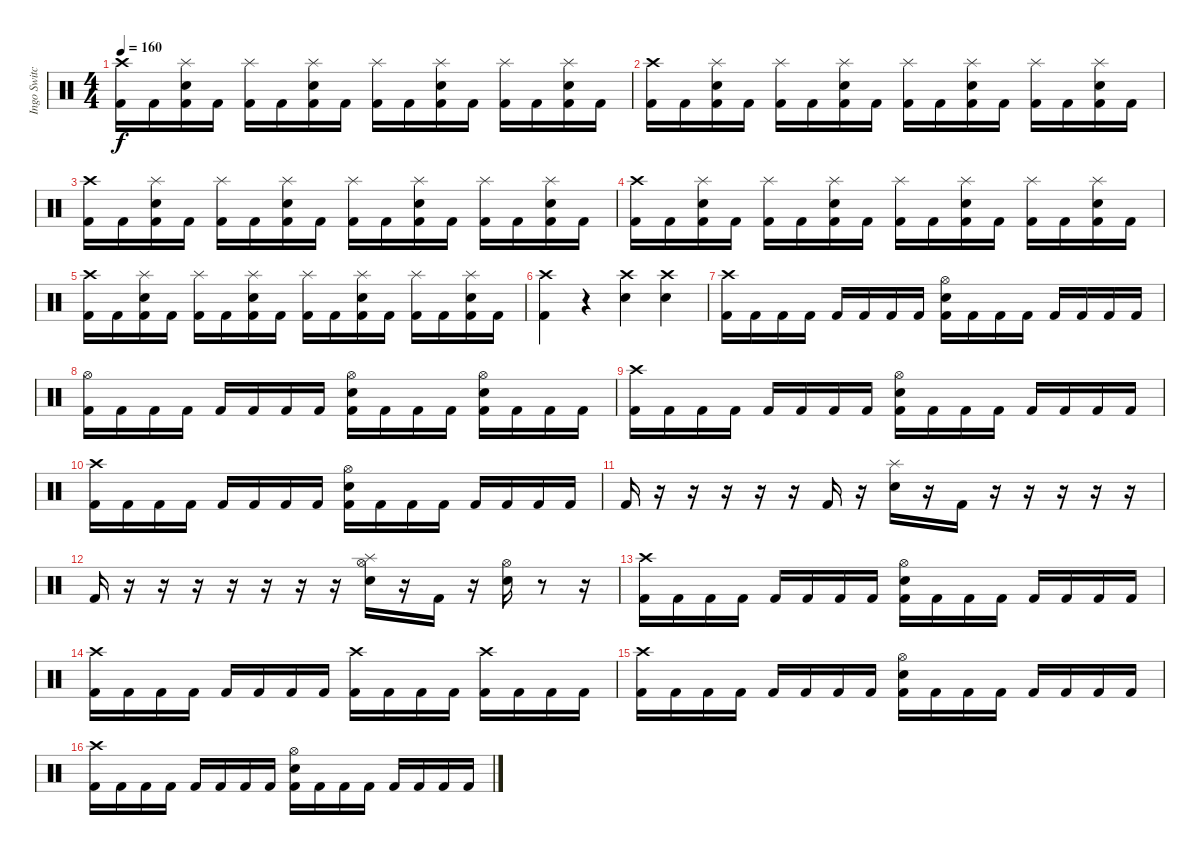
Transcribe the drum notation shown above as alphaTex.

\track ("Ingo Switchenberg" "Ingo Switc") {instrument percussion}
\staff {score}
\articulation defaults
\ts (4 4)
\tempo 160
\clef neutral
\ks c
("Crash high (hit)" "Kick (hit) 2").16{dy f} "Kick (hit) 2".16 ("Snare (hit) 2" "Kick (hit) 2" "Splash (hit)").16 "Kick (hit) 2".16 ("Kick (hit) 2" "Splash (hit)").16 "Kick (hit) 2".16 ("Snare (hit) 2" "Kick (hit) 2" "Splash (hit)").16 "Kick (hit) 2".16 ("Kick (hit) 2" "Splash (hit)").16 "Kick (hit) 2".16 ("Snare (hit) 2" "Kick (hit) 2" "Splash (hit)").16 "Kick (hit) 2".16 ("Kick (hit) 2" "Splash (hit)").16 "Kick (hit) 2".16 ("Snare (hit) 2" "Kick (hit) 2" "Splash (hit)").16 "Kick (hit) 2".16 |
("Crash high (hit)" "Kick (hit) 2").16 "Kick (hit) 2".16 ("Snare (hit) 2" "Kick (hit) 2" "Splash (hit)").16 "Kick (hit) 2".16 ("Kick (hit) 2" "Splash (hit)").16 "Kick (hit) 2".16 ("Snare (hit) 2" "Kick (hit) 2" "Splash (hit)").16 "Kick (hit) 2".16 ("Kick (hit) 2" "Splash (hit)").16 "Kick (hit) 2".16 ("Snare (hit) 2" "Kick (hit) 2" "Splash (hit)").16 "Kick (hit) 2".16 ("Kick (hit) 2" "Splash (hit)").16 "Kick (hit) 2".16 ("Snare (hit) 2" "Kick (hit) 2" "Splash (hit)").16 "Kick (hit) 2".16 |
("Crash high (hit)" "Kick (hit) 2").16 "Kick (hit) 2".16 ("Snare (hit) 2" "Kick (hit) 2" "Splash (hit)").16 "Kick (hit) 2".16 ("Kick (hit) 2" "Splash (hit)").16 "Kick (hit) 2".16 ("Snare (hit) 2" "Kick (hit) 2" "Splash (hit)").16 "Kick (hit) 2".16 ("Kick (hit) 2" "Splash (hit)").16 "Kick (hit) 2".16 ("Snare (hit) 2" "Kick (hit) 2" "Splash (hit)").16 "Kick (hit) 2".16 ("Kick (hit) 2" "Splash (hit)").16 "Kick (hit) 2".16 ("Snare (hit) 2" "Kick (hit) 2" "Splash (hit)").16 "Kick (hit) 2".16 |
("Crash high (hit)" "Kick (hit) 2").16 "Kick (hit) 2".16 ("Snare (hit) 2" "Kick (hit) 2" "Splash (hit)").16 "Kick (hit) 2".16 ("Kick (hit) 2" "Splash (hit)").16 "Kick (hit) 2".16 ("Snare (hit) 2" "Kick (hit) 2" "Splash (hit)").16 "Kick (hit) 2".16 ("Kick (hit) 2" "Splash (hit)").16 "Kick (hit) 2".16 ("Snare (hit) 2" "Kick (hit) 2" "Splash (hit)").16 "Kick (hit) 2".16 ("Kick (hit) 2" "Splash (hit)").16 "Kick (hit) 2".16 ("Snare (hit) 2" "Kick (hit) 2" "Splash (hit)").16 "Kick (hit) 2".16 |
("Crash high (hit)" "Kick (hit) 2").16 "Kick (hit) 2".16 ("Snare (hit) 2" "Kick (hit) 2" "Splash (hit)").16 "Kick (hit) 2".16 ("Kick (hit) 2" "Splash (hit)").16 "Kick (hit) 2".16 ("Snare (hit) 2" "Kick (hit) 2" "Splash (hit)").16 "Kick (hit) 2".16 ("Kick (hit) 2" "Splash (hit)").16 "Kick (hit) 2".16 ("Snare (hit) 2" "Kick (hit) 2" "Splash (hit)").16 "Kick (hit) 2".16 ("Kick (hit) 2" "Splash (hit)").16 "Kick (hit) 2".16 ("Snare (hit) 2" "Kick (hit) 2" "Splash (hit)").16 "Kick (hit) 2".16 |
("Kick (hit) 2" "Crash high (hit)").4 r.4 ("Crash high (hit)" "Electric Snare (hit)").4 ("Crash high (hit)" "Electric Snare (hit)").4 |
("Crash high (hit)" "Kick (hit) 2").16 "Kick (hit) 2".16 "Kick (hit) 2".16 "Kick (hit) 2".16 "Kick (hit) 2".16 "Kick (hit) 2".16 "Kick (hit) 2".16 "Kick (hit) 2".16 ("Hi-Hat (open)" "Snare (hit) 2" "Kick (hit) 2").16 "Kick (hit) 2".16 "Kick (hit) 2".16 "Kick (hit) 2".16 "Kick (hit) 2".16 "Kick (hit) 2".16 "Kick (hit) 2".16 "Kick (hit) 2".16 |
("Hi-Hat (open)" "Kick (hit) 2").16 "Kick (hit) 2".16 "Kick (hit) 2".16 "Kick (hit) 2".16 "Kick (hit) 2".16 "Kick (hit) 2".16 "Kick (hit) 2".16 "Kick (hit) 2".16 ("Hi-Hat (open)" "Snare (hit) 2" "Kick (hit) 2").16 "Kick (hit) 2".16 "Kick (hit) 2".16 "Kick (hit) 2".16 ("Hi-Hat (open)" "Kick (hit) 2" "Snare (hit) 2").16 "Kick (hit) 2".16 "Kick (hit) 2".16 "Kick (hit) 2".16 |
("Crash high (hit)" "Kick (hit) 2").16 "Kick (hit) 2".16 "Kick (hit) 2".16 "Kick (hit) 2".16 "Kick (hit) 2".16 "Kick (hit) 2".16 "Kick (hit) 2".16 "Kick (hit) 2".16 ("Hi-Hat (open)" "Snare (hit) 2" "Kick (hit) 2").16 "Kick (hit) 2".16 "Kick (hit) 2".16 "Kick (hit) 2".16 "Kick (hit) 2".16 "Kick (hit) 2".16 "Kick (hit) 2".16 "Kick (hit) 2".16 |
("Crash high (hit)" "Kick (hit) 2").16 "Kick (hit) 2".16 "Kick (hit) 2".16 "Kick (hit) 2".16 "Kick (hit) 2".16 "Kick (hit) 2".16 "Kick (hit) 2".16 "Kick (hit) 2".16 ("Hi-Hat (open)" "Snare (hit) 2" "Kick (hit) 2").16 "Kick (hit) 2".16 "Kick (hit) 2".16 "Kick (hit) 2".16 "Kick (hit) 2".16 "Kick (hit) 2".16 "Kick (hit) 2".16 "Kick (hit) 2".16 |
"Kick (hit) 2".16 r.16 r.16 r.16 r.16 r.16 "Kick (hit) 2".16 r.16 ("Snare (hit) 2" "Splash (hit)").16 r.16 "Kick (hit) 2".16 r.16 r.16 r.16 r.16 r.16 |
"Kick (hit) 2".16 r.16 r.16 r.16 r.16 r.16 r.16 r.16 ("Hi-Hat (open)" "Snare (hit) 2" "Splash (hit)").16 r.16 "Kick (hit) 2".16 r.16 ("Hi-Hat (open)" "Snare (hit) 2").16 r.8 r.16 |
("Crash high (hit)" "Kick (hit) 2").16 "Kick (hit) 2".16 "Kick (hit) 2".16 "Kick (hit) 2".16 "Kick (hit) 2".16 "Kick (hit) 2".16 "Kick (hit) 2".16 "Kick (hit) 2".16 ("Hi-Hat (open)" "Snare (hit) 2" "Kick (hit) 2").16 "Kick (hit) 2".16 "Kick (hit) 2".16 "Kick (hit) 2".16 "Kick (hit) 2".16 "Kick (hit) 2".16 "Kick (hit) 2".16 "Kick (hit) 2".16 |
("Kick (hit) 2" "Crash high (hit)").16 "Kick (hit) 2".16 "Kick (hit) 2".16 "Kick (hit) 2".16 "Kick (hit) 2".16 "Kick (hit) 2".16 "Kick (hit) 2".16 "Kick (hit) 2".16 ("Kick (hit) 2" "Crash high (hit)").16 "Kick (hit) 2".16 "Kick (hit) 2".16 "Kick (hit) 2".16 ("Kick (hit) 2" "Crash high (hit)").16 "Kick (hit) 2".16 "Kick (hit) 2".16 "Kick (hit) 2".16 |
("Crash high (hit)" "Kick (hit) 2").16 "Kick (hit) 2".16 "Kick (hit) 2".16 "Kick (hit) 2".16 "Kick (hit) 2".16 "Kick (hit) 2".16 "Kick (hit) 2".16 "Kick (hit) 2".16 ("Hi-Hat (open)" "Snare (hit) 2" "Kick (hit) 2").16 "Kick (hit) 2".16 "Kick (hit) 2".16 "Kick (hit) 2".16 "Kick (hit) 2".16 "Kick (hit) 2".16 "Kick (hit) 2".16 "Kick (hit) 2".16 |
("Crash high (hit)" "Kick (hit) 2").16 "Kick (hit) 2".16 "Kick (hit) 2".16 "Kick (hit) 2".16 "Kick (hit) 2".16 "Kick (hit) 2".16 "Kick (hit) 2".16 "Kick (hit) 2".16 ("Hi-Hat (open)" "Snare (hit) 2" "Kick (hit) 2").16 "Kick (hit) 2".16 "Kick (hit) 2".16 "Kick (hit) 2".16 "Kick (hit) 2".16 "Kick (hit) 2".16 "Kick (hit) 2".16 "Kick (hit) 2".16
